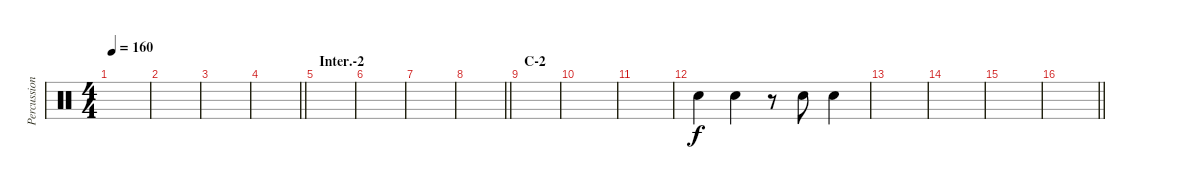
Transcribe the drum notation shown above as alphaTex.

\track ("Percussion A (Tainaka Ritsu)" "Percussion") {instrument percussion}
\staff {score}
\articulation defaults
\ts (4 4)
\tempo 160
\clef neutral
\ks c
|
|
|
\barLineRight lightlight
|
\section ("" "Inter.-2")
|
|
|
\barLineRight lightlight
|
\section ("" "C-2")
|
|
|
"Hand Clap (hit)".4 "Hand Clap (hit)".4 r.8 "Hand Clap (hit)".8 "Hand Clap (hit)".4 |
|
|
|
\barLineRight lightlight
